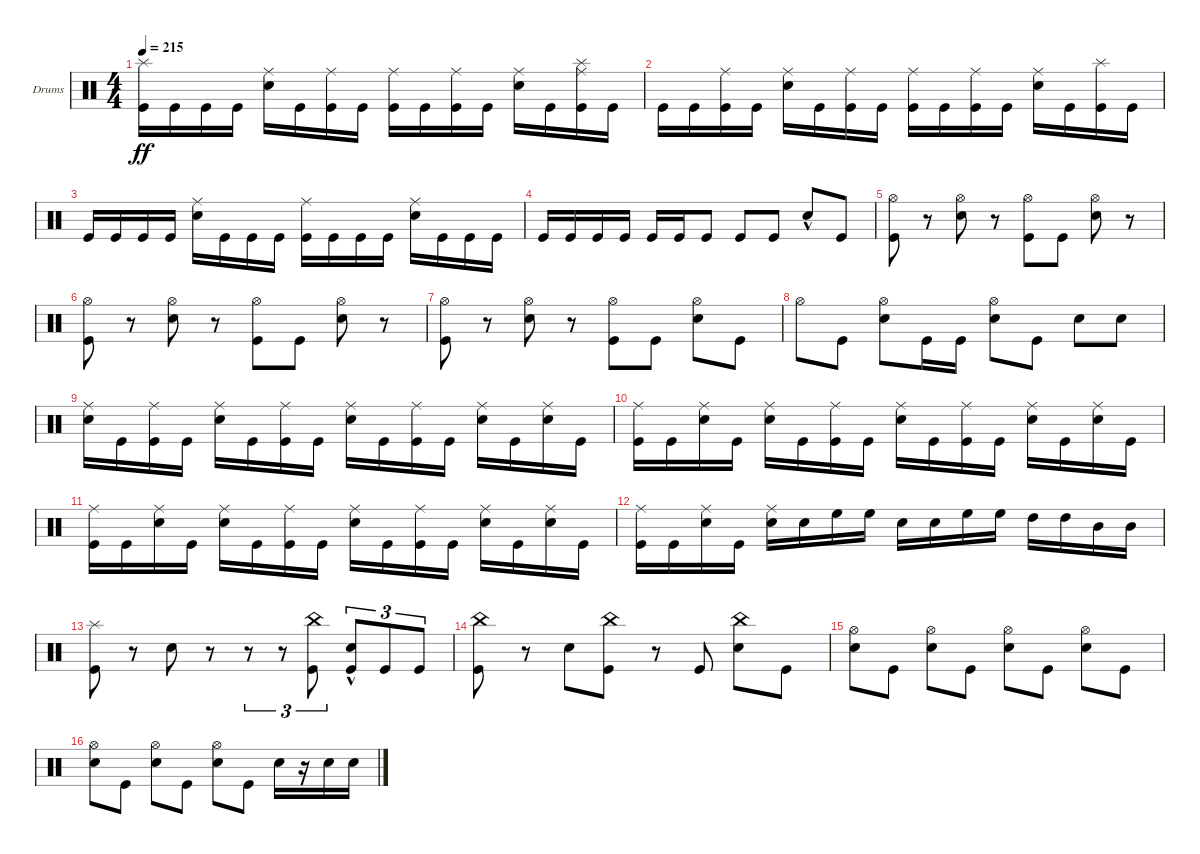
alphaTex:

\bracketExtendMode groupsimilarinstruments
\firstSystemTrackNameOrientation horizontal
\otherSystemsTrackNameOrientation horizontal
\track ("Drumkit" "Drums") {instrument percussion}
\staff {score}
\articulation defaults
\ts (4 4)
\tempo 215
\clef neutral
\ks c
("Kick (hit)" "Splash (hit)").16{dy ff} "Kick (hit)".16 "Kick (hit)".16 "Kick (hit)".16 ("Snare (hit) 2" "Ride (middle)").16 "Kick (hit)".16 ("Kick (hit)" "Ride (middle)").16 "Kick (hit)".16 ("Kick (hit)" "Ride (middle)").16 "Kick (hit)".16 ("Kick (hit)" "Ride (middle)").16 "Kick (hit)".16 ("Snare (hit) 2" "Ride (middle)").16 "Kick (hit)".16 ("Kick (hit)" "Ride (middle)" "Splash (hit)").16 "Kick (hit)".16 |
"Kick (hit)".16 "Kick (hit)".16 ("Kick (hit)" "Ride (middle)").16 "Kick (hit)".16 ("Snare (hit) 2" "Ride (middle)").16 "Kick (hit)".16 ("Kick (hit)" "Ride (middle)").16 "Kick (hit)".16 ("Kick (hit)" "Ride (middle)").16 "Kick (hit)".16 ("Kick (hit)" "Ride (middle)").16 "Kick (hit)".16 ("Snare (hit) 2" "Ride (middle)").16 "Kick (hit)".16 ("Kick (hit)" "Splash (hit)").16 "Kick (hit)".16 |
"Kick (hit)".16 "Kick (hit)".16 "Kick (hit)".16 "Kick (hit)".16 ("Snare (hit) 2" "Ride (middle)").16 "Kick (hit)".16 "Kick (hit)".16 "Kick (hit)".16 ("Kick (hit)" "Ride (middle)").16 "Kick (hit)".16 "Kick (hit)".16 "Kick (hit)".16 ("Snare (hit) 2" "Ride (middle)").16 "Kick (hit)".16 "Kick (hit)".16 "Kick (hit)".16 |
"Kick (hit)".16 "Kick (hit)".16 "Kick (hit)".16 "Kick (hit)".16 "Kick (hit)".16 "Kick (hit)".16 "Kick (hit)".8 "Kick (hit)".8 "Kick (hit)".8 "Snare (hit) 2"{hac}.8 "Kick (hit)".8 |
("Kick (hit)" "Hi-Hat (open)").8 r.8 ("Snare (hit) 2" "Hi-Hat (open)").8 r.8 ("Kick (hit)" "Hi-Hat (open)").8 "Kick (hit)".8 ("Snare (hit) 2" "Hi-Hat (open)").8 r.8 |
("Kick (hit)" "Hi-Hat (open)").8 r.8 ("Snare (hit) 2" "Hi-Hat (open)").8 r.8 ("Kick (hit)" "Hi-Hat (open)").8 "Kick (hit)".8 ("Snare (hit) 2" "Hi-Hat (open)").8 r.8 |
("Kick (hit)" "Hi-Hat (open)").8 r.8 ("Snare (hit) 2" "Hi-Hat (open)").8 r.8 ("Kick (hit)" "Hi-Hat (open)").8 "Kick (hit)".8 ("Snare (hit) 2" "Hi-Hat (open)").8 "Kick (hit)".8 |
"Hi-Hat (open)".8 "Kick (hit)".8 ("Snare (hit) 2" "Hi-Hat (open)").8 "Kick (hit)".16 "Kick (hit)".16 ("Snare (hit) 2" "Hi-Hat (open)").8 "Kick (hit)".8 "Snare (hit) 2".8 "Snare (hit) 2".8 |
("Snare (hit) 2" "Ride (middle)").16 "Kick (hit)".16 ("Kick (hit)" "Ride (middle)").16 "Kick (hit)".16 ("Snare (hit) 2" "Ride (middle)").16 "Kick (hit)".16 ("Kick (hit)" "Ride (middle)").16 "Kick (hit)".16 ("Ride (middle)" "Snare (hit) 2").16 "Kick (hit)".16 ("Kick (hit)" "Ride (middle)").16 "Kick (hit)".16 ("Snare (hit) 2" "Ride (middle)").16 "Kick (hit)".16 ("Ride (middle)" "Snare (hit) 2").16 "Kick (hit)".16 |
("Kick (hit)" "Ride (middle)").16 "Kick (hit)".16 ("Snare (hit) 2" "Ride (middle)").16 "Kick (hit)".16 ("Snare (hit) 2" "Ride (middle)").16 "Kick (hit)".16 ("Kick (hit)" "Ride (middle)").16 "Kick (hit)".16 ("Ride (middle)" "Snare (hit) 2").16 "Kick (hit)".16 ("Kick (hit)" "Ride (middle)").16 "Kick (hit)".16 ("Snare (hit) 2" "Ride (middle)").16 "Kick (hit)".16 ("Ride (middle)" "Snare (hit) 2").16 "Kick (hit)".16 |
("Kick (hit)" "Ride (middle)").16 "Kick (hit)".16 ("Snare (hit) 2" "Ride (middle)").16 "Kick (hit)".16 ("Snare (hit) 2" "Ride (middle)").16 "Kick (hit)".16 ("Kick (hit)" "Ride (middle)").16 "Kick (hit)".16 ("Ride (middle)" "Snare (hit) 2").16 "Kick (hit)".16 ("Kick (hit)" "Ride (middle)").16 "Kick (hit)".16 ("Snare (hit) 2" "Ride (middle)").16 "Kick (hit)".16 ("Ride (middle)" "Snare (hit) 2").16 "Kick (hit)".16 |
("Kick (hit)" "Ride (middle)").16 "Kick (hit)".16 ("Snare (hit) 2" "Ride (middle)").16 "Kick (hit)".16 ("Snare (hit) 2" "Ride (middle)").16 "Snare (hit) 2".16 "High Floor Tom (hit)".16 "High Floor Tom (hit)".16 "Snare (hit) 2".16 "Snare (hit) 2".16 "High Floor Tom (hit)".16 "High Floor Tom (hit)".16 "High Tom (hit)".16 "High Tom (hit)".16 "Mid Tom (hit)".16 "Mid Tom (hit)".16 |
("Kick (hit)" "Splash (hit)").8 r.8 "Snare (hit) 2".8 r.8 r.8{tu (3 2)} r.8{tu (3 2)} ("Kick (hit)" "China (hit)").8{tu (3 2)} ("Kick (hit)" "Snare (hit) 2"{hac}).8{tu (3 2)} "Kick (hit)".8{tu (3 2)} "Kick (hit)".8{tu (3 2)} |
("Kick (hit)" "China (hit)").8 r.8 "Snare (hit) 2".8 ("Kick (hit)" "China (hit)").8 r.8 "Kick (hit)".8 ("Snare (hit) 2" "China (hit)").8 "Kick (hit)".8 |
("Snare (hit) 2" "Hi-Hat (open)").8 "Kick (hit)".8 ("Snare (hit) 2" "Hi-Hat (open)").8 "Kick (hit)".8 ("Snare (hit) 2" "Hi-Hat (open)").8 "Kick (hit)".8 ("Snare (hit) 2" "Hi-Hat (open)").8 "Kick (hit)".8 |
("Snare (hit) 2" "Hi-Hat (open)").8 "Kick (hit)".8 ("Snare (hit) 2" "Hi-Hat (open)").8 "Kick (hit)".8 ("Snare (hit) 2" "Hi-Hat (open)").8 "Kick (hit)".8 "Snare (hit) 2".16 r.16 "Snare (hit) 2".16 "Snare (hit) 2".16
